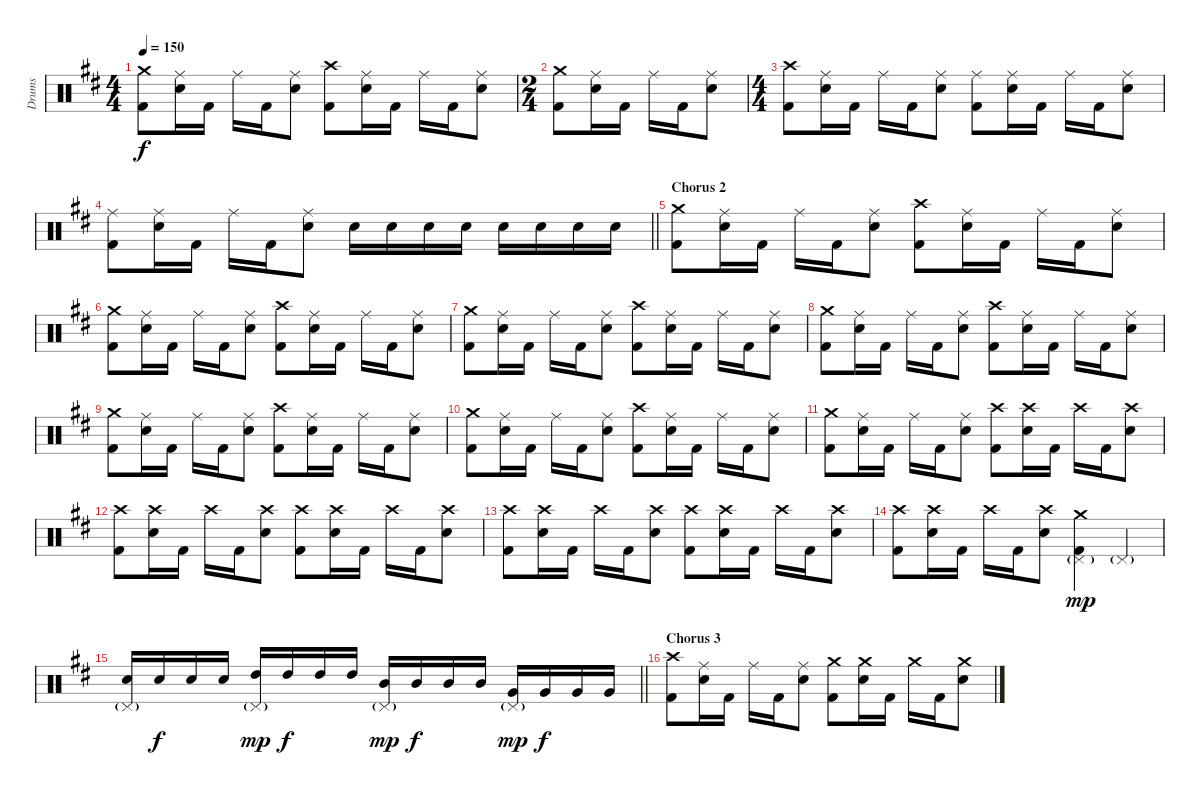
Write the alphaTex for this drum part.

\track ("Drums" "Drums") {instrument percussion}
\staff {score}
\articulation defaults
\ts (4 4)
\tempo 150
\clef neutral
\ks bminor
("Crash medium (hit)" "Kick (hit) 2").8{dy f} ("Ride (middle)" "Electric Snare (hit)").16 "Kick (hit) 2".16 "Ride (middle)".16 "Kick (hit) 2".16 ("Ride (middle)" "Electric Snare (hit)").8 ("Crash high (hit)" "Kick (hit) 2").8 ("Ride (middle)" "Electric Snare (hit)").16 "Kick (hit) 2".16 "Ride (middle)".16 "Kick (hit) 2".16 ("Ride (middle)" "Electric Snare (hit)").8 |
\ts (2 4)
("Crash medium (hit)" "Kick (hit) 2").8 ("Ride (middle)" "Electric Snare (hit)").16 "Kick (hit) 2".16 "Ride (middle)".16 "Kick (hit) 2".16 ("Ride (middle)" "Electric Snare (hit)").8 |
\ts (4 4)
("Crash high (hit)" "Kick (hit) 2").8 ("Ride (middle)" "Electric Snare (hit)").16 "Kick (hit) 2".16 "Ride (middle)".16 "Kick (hit) 2".16 ("Ride (middle)" "Electric Snare (hit)").8 ("Ride (middle)" "Kick (hit) 2").8 ("Ride (middle)" "Electric Snare (hit)").16 "Kick (hit) 2".16 "Ride (middle)".16 "Kick (hit) 2".16 ("Ride (middle)" "Electric Snare (hit)").8 |
\barLineRight lightlight
("Ride (middle)" "Kick (hit) 2").8 ("Ride (middle)" "Electric Snare (hit)").16 "Kick (hit) 2".16 "Ride (middle)".16 "Kick (hit) 2".16 ("Ride (middle)" "Electric Snare (hit)").8 "Electric Snare (hit)".16 "Electric Snare (hit)".16 "Electric Snare (hit)".16 "Electric Snare (hit)".16 "Electric Snare (hit)".16 "Electric Snare (hit)".16 "Electric Snare (hit)".16 "Electric Snare (hit)".16 |
\section ("" "Chorus 2")
("Crash medium (hit)" "Kick (hit) 2").8 ("Ride (middle)" "Electric Snare (hit)").16 "Kick (hit) 2".16 "Ride (middle)".16 "Kick (hit) 2".16 ("Ride (middle)" "Electric Snare (hit)").8 ("Crash high (hit)" "Kick (hit) 2").8 ("Ride (middle)" "Electric Snare (hit)").16 "Kick (hit) 2".16 "Ride (middle)".16 "Kick (hit) 2".16 ("Ride (middle)" "Electric Snare (hit)").8 |
("Crash medium (hit)" "Kick (hit) 2").8 ("Ride (middle)" "Electric Snare (hit)").16 "Kick (hit) 2".16 "Ride (middle)".16 "Kick (hit) 2".16 ("Ride (middle)" "Electric Snare (hit)").8 ("Crash high (hit)" "Kick (hit) 2").8 ("Ride (middle)" "Electric Snare (hit)").16 "Kick (hit) 2".16 "Ride (middle)".16 "Kick (hit) 2".16 ("Ride (middle)" "Electric Snare (hit)").8 |
("Crash medium (hit)" "Kick (hit) 2").8 ("Ride (middle)" "Electric Snare (hit)").16 "Kick (hit) 2".16 "Ride (middle)".16 "Kick (hit) 2".16 ("Ride (middle)" "Electric Snare (hit)").8 ("Crash high (hit)" "Kick (hit) 2").8 ("Ride (middle)" "Electric Snare (hit)").16 "Kick (hit) 2".16 "Ride (middle)".16 "Kick (hit) 2".16 ("Ride (middle)" "Electric Snare (hit)").8 |
("Crash medium (hit)" "Kick (hit) 2").8 ("Ride (middle)" "Electric Snare (hit)").16 "Kick (hit) 2".16 "Ride (middle)".16 "Kick (hit) 2".16 ("Ride (middle)" "Electric Snare (hit)").8 ("Crash high (hit)" "Kick (hit) 2").8 ("Ride (middle)" "Electric Snare (hit)").16 "Kick (hit) 2".16 "Ride (middle)".16 "Kick (hit) 2".16 ("Ride (middle)" "Electric Snare (hit)").8 |
("Crash medium (hit)" "Kick (hit) 2").8 ("Ride (middle)" "Electric Snare (hit)").16 "Kick (hit) 2".16 "Ride (middle)".16 "Kick (hit) 2".16 ("Ride (middle)" "Electric Snare (hit)").8 ("Crash high (hit)" "Kick (hit) 2").8 ("Ride (middle)" "Electric Snare (hit)").16 "Kick (hit) 2".16 "Ride (middle)".16 "Kick (hit) 2".16 ("Ride (middle)" "Electric Snare (hit)").8 |
("Crash medium (hit)" "Kick (hit) 2").8 ("Ride (middle)" "Electric Snare (hit)").16 "Kick (hit) 2".16 "Ride (middle)".16 "Kick (hit) 2".16 ("Ride (middle)" "Electric Snare (hit)").8 ("Crash high (hit)" "Kick (hit) 2").8 ("Ride (middle)" "Electric Snare (hit)").16 "Kick (hit) 2".16 "Ride (middle)".16 "Kick (hit) 2".16 ("Ride (middle)" "Electric Snare (hit)").8 |
("Crash medium (hit)" "Kick (hit) 2").8 ("Ride (middle)" "Electric Snare (hit)").16 "Kick (hit) 2".16 "Ride (middle)".16 "Kick (hit) 2".16 ("Ride (middle)" "Electric Snare (hit)").8 ("Crash high (hit)" "Kick (hit) 2").8 ("Crash high (hit)" "Electric Snare (hit)").16 "Kick (hit) 2".16 "Crash high (hit)".16 "Kick (hit) 2".16 ("Crash high (hit)" "Electric Snare (hit)").8 |
("Crash high (hit)" "Kick (hit) 2").8 ("Crash high (hit)" "Electric Snare (hit)").16 "Kick (hit) 2".16 "Crash high (hit)".16 "Kick (hit) 2".16 ("Crash high (hit)" "Electric Snare (hit)").8 ("Crash high (hit)" "Kick (hit) 2").8 ("Crash high (hit)" "Electric Snare (hit)").16 "Kick (hit) 2".16 "Crash high (hit)".16 "Kick (hit) 2".16 ("Crash high (hit)" "Electric Snare (hit)").8 |
("Crash high (hit)" "Kick (hit) 2").8 ("Crash high (hit)" "Electric Snare (hit)").16 "Kick (hit) 2".16 "Crash high (hit)".16 "Kick (hit) 2".16 ("Crash high (hit)" "Electric Snare (hit)").8 ("Crash high (hit)" "Kick (hit) 2").8 ("Crash high (hit)" "Electric Snare (hit)").16 "Kick (hit) 2".16 "Crash high (hit)".16 "Kick (hit) 2".16 ("Crash high (hit)" "Electric Snare (hit)").8 |
("Crash high (hit)" "Kick (hit) 2").8 ("Crash high (hit)" "Electric Snare (hit)").16 "Kick (hit) 2".16 "Crash high (hit)".16 "Kick (hit) 2".16 ("Crash high (hit)" "Electric Snare (hit)").8 ("Crash medium (hit)" "Pedal Hi-Hat (hit)"{g} "Kick (hit) 2").4{dy mp} "Pedal Hi-Hat (hit)"{g}.4 |
\barLineRight lightlight
("Pedal Hi-Hat (hit)"{g} "Electric Snare (hit)").16 "Electric Snare (hit)".16{dy f} "Electric Snare (hit)".16 "Electric Snare (hit)".16 ("Pedal Hi-Hat (hit)"{g} "High Tom (hit)").16{dy mp} "High Tom (hit)".16{dy f} "High Tom (hit)".16 "High Tom (hit)".16 ("Pedal Hi-Hat (hit)"{g} "Mid Tom (hit)").16{dy mp} "Mid Tom (hit)".16{dy f} "Mid Tom (hit)".16 "Mid Tom (hit)".16 ("Pedal Hi-Hat (hit)"{g} "Very Low Tom (hit)").16{dy mp} "Very Low Tom (hit)".16{dy f} "Very Low Tom (hit)".16 "Very Low Tom (hit)".16 |
\section ("" "Chorus 3")
("Crash high (hit)" "Kick (hit) 2").8 ("Ride (middle)" "Electric Snare (hit)").16 "Kick (hit) 2".16 "Ride (middle)".16 "Kick (hit) 2".16 ("Ride (middle)" "Electric Snare (hit)").8 ("Crash medium (hit)" "Kick (hit) 2").8 ("Crash medium (hit)" "Electric Snare (hit)").16 "Kick (hit) 2".16 "Crash medium (hit)".16 "Kick (hit) 2".16 ("Crash medium (hit)" "Electric Snare (hit)").8
